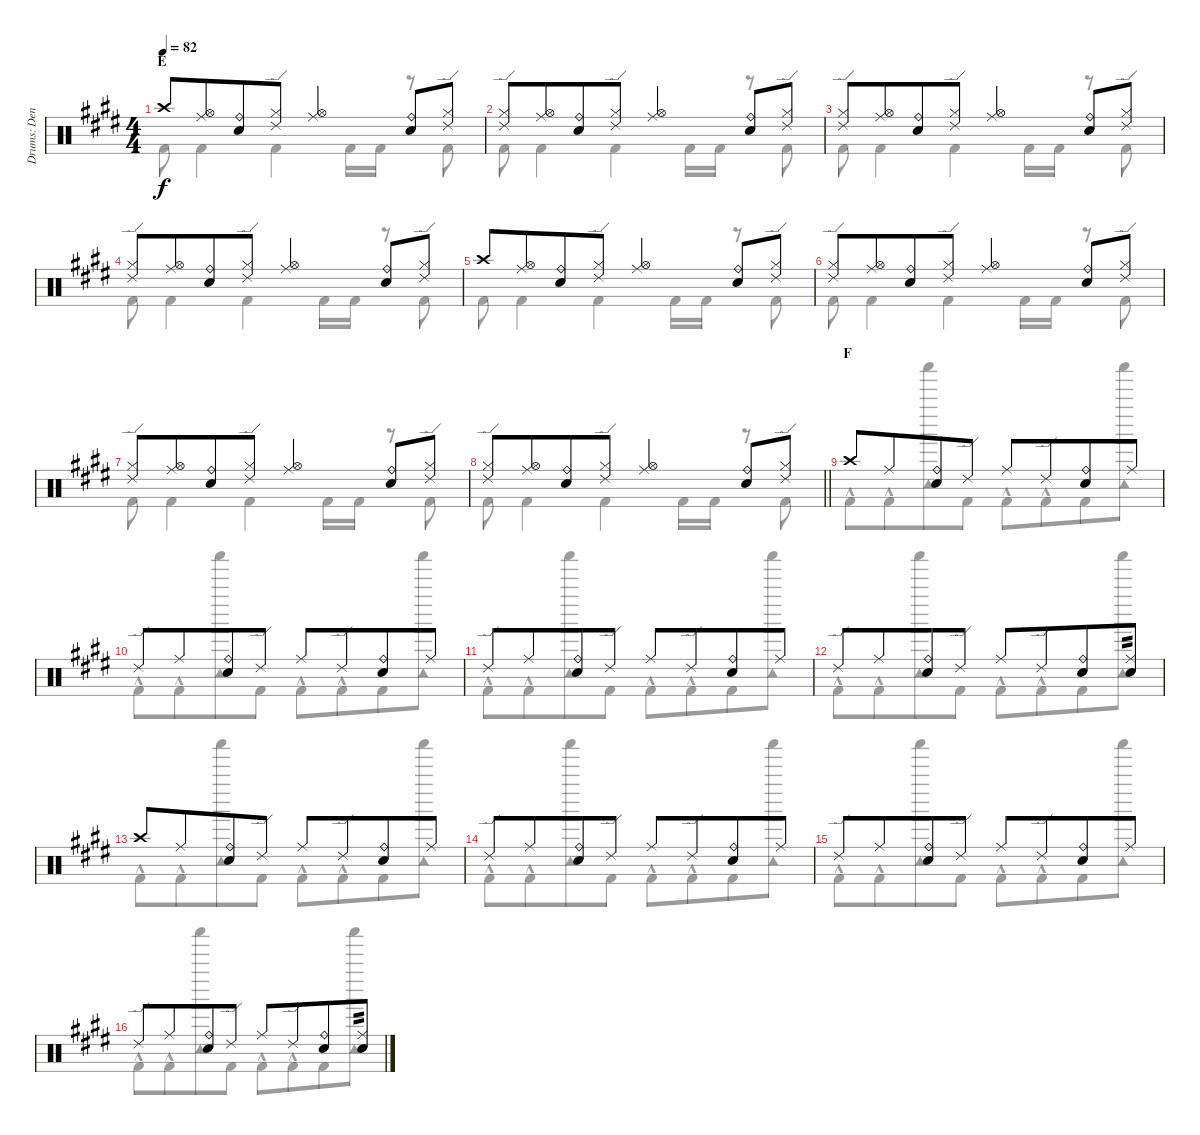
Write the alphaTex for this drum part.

\track ("Drums: Denny" "Drums: Den") {instrument percussion}
\staff {score}
\articulation defaults
\voice
\ts (4 4)
\section ("" "E")
\tempo 82
\clef neutral
\ks e "Crash high (hit)".8{dy f}
("Ride (middle)" "Hi-Hat (open)").8{beam merge} ("Ride (bell)" "Snare (hit) 2").8 ("Ride (edge) 2" "Hi-Hat (closed)").8 ("Ride (middle)" "Hi-Hat (open)").4 ("Ride (bell)" "Snare (hit) 2").8 ("Ride (edge) 2" "Hi-Hat (closed)").8 |
("Ride (edge) 2" "Hi-Hat (closed)").8 ("Ride (middle)" "Hi-Hat (open)").8{beam merge} ("Ride (bell)" "Snare (hit) 2").8 ("Ride (edge) 2" "Hi-Hat (closed)").8 ("Ride (middle)" "Hi-Hat (open)").4 ("Ride (bell)" "Snare (hit) 2").8 ("Ride (edge) 2" "Hi-Hat (closed)").8 |
("Ride (edge) 2" "Hi-Hat (closed)").8 ("Ride (middle)" "Hi-Hat (open)").8{beam merge} ("Ride (bell)" "Snare (hit) 2").8 ("Ride (edge) 2" "Hi-Hat (closed)").8 ("Ride (middle)" "Hi-Hat (open)").4 ("Ride (bell)" "Snare (hit) 2").8 ("Ride (edge) 2" "Hi-Hat (closed)").8 |
("Ride (edge) 2" "Hi-Hat (closed)").8 ("Ride (middle)" "Hi-Hat (open)").8{beam merge} ("Ride (bell)" "Snare (hit) 2").8 ("Ride (edge) 2" "Hi-Hat (closed)").8 ("Ride (middle)" "Hi-Hat (open)").4 ("Ride (bell)" "Snare (hit) 2").8 ("Ride (edge) 2" "Hi-Hat (closed)").8 |
"Crash high (hit)".8 ("Ride (middle)" "Hi-Hat (open)").8{beam merge} ("Ride (bell)" "Snare (hit) 2").8 ("Ride (edge) 2" "Hi-Hat (closed)").8 ("Ride (middle)" "Hi-Hat (open)").4 ("Ride (bell)" "Snare (hit) 2").8 ("Ride (edge) 2" "Hi-Hat (closed)").8 |
("Ride (edge) 2" "Hi-Hat (closed)").8 ("Ride (middle)" "Hi-Hat (open)").8{beam merge} ("Ride (bell)" "Snare (hit) 2").8 ("Ride (edge) 2" "Hi-Hat (closed)").8 ("Ride (middle)" "Hi-Hat (open)").4 ("Ride (bell)" "Snare (hit) 2").8 ("Ride (edge) 2" "Hi-Hat (closed)").8 |
("Ride (edge) 2" "Hi-Hat (closed)").8 ("Ride (middle)" "Hi-Hat (open)").8{beam merge} ("Ride (bell)" "Snare (hit) 2").8 ("Ride (edge) 2" "Hi-Hat (closed)").8 ("Ride (middle)" "Hi-Hat (open)").4 ("Ride (bell)" "Snare (hit) 2").8 ("Ride (edge) 2" "Hi-Hat (closed)").8 |
\barLineRight lightlight
("Ride (edge) 2" "Hi-Hat (closed)").8 ("Ride (middle)" "Hi-Hat (open)").8{beam merge} ("Ride (bell)" "Snare (hit) 2").8 ("Ride (edge) 2" "Hi-Hat (closed)").8 ("Ride (middle)" "Hi-Hat (open)").4 ("Ride (bell)" "Snare (hit) 2").8 ("Ride (edge) 2" "Hi-Hat (closed)").8 |
\section ("" "F")
"Crash high (hit)".8 "Ride (middle)".8{beam merge} ("Ride (bell)" "Snare (hit) 2").8 "Ride (edge) 2".8 "Ride (middle)".8 "Ride (edge) 2".8{beam merge} ("Ride (bell)" "Snare (hit) 2").8 "Ride (middle)".8 |
"Ride (edge) 2".8 "Ride (middle)".8{beam merge} ("Ride (bell)" "Snare (hit) 2").8 "Ride (edge) 2".8 "Ride (middle)".8 "Ride (edge) 2".8{beam merge} ("Ride (bell)" "Snare (hit) 2").8 "Ride (middle)".8 |
"Ride (edge) 2".8 "Ride (middle)".8{beam merge} ("Ride (bell)" "Snare (hit) 2").8 "Ride (edge) 2".8 "Ride (middle)".8 "Ride (edge) 2".8{beam merge} ("Ride (bell)" "Snare (hit) 2").8 "Ride (middle)".8 |
"Ride (edge) 2".8 "Ride (middle)".8{beam merge} ("Ride (bell)" "Snare (hit) 2").8 "Ride (edge) 2".8 "Ride (middle)".8 "Ride (edge) 2".8{beam merge} ("Ride (bell)" "Snare (hit) 2").8 ("Ride (middle)" "Electric Snare (hit)").8{tp 2} |
"Crash high (hit)".8 "Ride (middle)".8{beam merge} ("Ride (bell)" "Snare (hit) 2").8 "Ride (edge) 2".8 "Ride (middle)".8 "Ride (edge) 2".8{beam merge} ("Ride (bell)" "Snare (hit) 2").8 "Ride (middle)".8 |
"Ride (edge) 2".8 "Ride (middle)".8{beam merge} ("Ride (bell)" "Snare (hit) 2").8 "Ride (edge) 2".8 "Ride (middle)".8 "Ride (edge) 2".8{beam merge} ("Ride (bell)" "Snare (hit) 2").8 "Ride (middle)".8 |
"Ride (edge) 2".8 "Ride (middle)".8{beam merge} ("Ride (bell)" "Snare (hit) 2").8 "Ride (edge) 2".8 "Ride (middle)".8 "Ride (edge) 2".8{beam merge} ("Ride (bell)" "Snare (hit) 2").8 "Ride (middle)".8 |
"Ride (edge) 2".8 "Ride (middle)".8{beam merge} ("Ride (bell)" "Snare (hit) 2").8 "Ride (edge) 2".8 "Ride (middle)".8 "Ride (edge) 2".8{beam merge} ("Ride (bell)" "Snare (hit) 2").8 ("Ride (middle)" "Electric Snare (hit)").8{tp 2}
\voice
\clef neutral
\ottava regular
\simile none
\ks e "Kick (hit) 2".8{dy f} "Kick (hit) 2".4 "Kick (hit) 2".4 "Kick (hit) 2".16 "Kick (hit) 2".16
r.8 "Kick (hit) 2".8 |
"Kick (hit) 2".8 "Kick (hit) 2".4 "Kick (hit) 2".4 "Kick (hit) 2".16 "Kick (hit) 2".16 r.8 "Kick (hit) 2".8 |
"Kick (hit) 2".8 "Kick (hit) 2".4 "Kick (hit) 2".4 "Kick (hit) 2".16 "Kick (hit) 2".16 r.8 "Kick (hit) 2".8 |
"Kick (hit) 2".8 "Kick (hit) 2".4 "Kick (hit) 2".4 "Kick (hit) 2".16 "Kick (hit) 2".16 r.8 "Kick (hit) 2".8 |
"Kick (hit) 2".8 "Kick (hit) 2".4 "Kick (hit) 2".4 "Kick (hit) 2".16 "Kick (hit) 2".16 r.8 "Kick (hit) 2".8 |
"Kick (hit) 2".8 "Kick (hit) 2".4 "Kick (hit) 2".4 "Kick (hit) 2".16 "Kick (hit) 2".16 r.8 "Kick (hit) 2".8 |
"Kick (hit) 2".8 "Kick (hit) 2".4 "Kick (hit) 2".4 "Kick (hit) 2".16 "Kick (hit) 2".16 r.8 "Kick (hit) 2".8 |
\barLineRight lightlight "Kick (hit) 2".8 "Kick (hit) 2".4 "Kick (hit) 2".4 "Kick (hit) 2".16 "Kick (hit) 2".16
r.8 "Kick (hit) 2".8 |
"Kick (hit) 2"{hac}.8 "Kick (hit) 2"{hac}.8{beam merge} ("Shaker (hit)" "Tambourine (hit)").8 "Kick (hit) 2".8 "Kick (hit) 2"{hac}.8 "Kick (hit) 2"{hac}.8{beam merge} "Kick (hit) 2".8 ("Shaker (hit)" "Tambourine (hit)").8 |
"Kick (hit) 2"{hac}.8 "Kick (hit) 2"{hac}.8{beam merge} ("Shaker (hit)" "Tambourine (hit)").8 "Kick (hit) 2".8 "Kick (hit) 2"{hac}.8 "Kick (hit) 2"{hac}.8{beam merge} "Kick (hit) 2".8 ("Shaker (hit)" "Tambourine (hit)").8 |
"Kick (hit) 2"{hac}.8 "Kick (hit) 2"{hac}.8{beam merge} ("Shaker (hit)" "Tambourine (hit)").8 "Kick (hit) 2".8 "Kick (hit) 2"{hac}.8 "Kick (hit) 2"{hac}.8{beam merge} "Kick (hit) 2".8 ("Shaker (hit)" "Tambourine (hit)").8 |
"Kick (hit) 2"{hac}.8 "Kick (hit) 2"{hac}.8{beam merge} ("Shaker (hit)" "Tambourine (hit)").8 "Kick (hit) 2".8 "Kick (hit) 2"{hac}.8 "Kick (hit) 2"{hac}.8{beam merge} "Kick (hit) 2".8 ("Shaker (hit)" "Tambourine (hit)").8 |
"Kick (hit) 2"{hac}.8 "Kick (hit) 2"{hac}.8{beam merge} ("Shaker (hit)" "Tambourine (hit)").8 "Kick (hit) 2".8 "Kick (hit) 2"{hac}.8 "Kick (hit) 2"{hac}.8{beam merge} "Kick (hit) 2".8 ("Shaker (hit)" "Tambourine (hit)").8 |
"Kick (hit) 2"{hac}.8 "Kick (hit) 2"{hac}.8{beam merge} ("Shaker (hit)" "Tambourine (hit)").8 "Kick (hit) 2".8 "Kick (hit) 2"{hac}.8 "Kick (hit) 2"{hac}.8{beam merge} "Kick (hit) 2".8 ("Shaker (hit)" "Tambourine (hit)").8 |
"Kick (hit) 2"{hac}.8 "Kick (hit) 2"{hac}.8{beam merge} ("Shaker (hit)" "Tambourine (hit)").8 "Kick (hit) 2".8 "Kick (hit) 2"{hac}.8 "Kick (hit) 2"{hac}.8{beam merge} "Kick (hit) 2".8 ("Shaker (hit)" "Tambourine (hit)").8 |
"Kick (hit) 2"{hac}.8 "Kick (hit) 2"{hac}.8{beam merge} ("Shaker (hit)" "Tambourine (hit)").8 "Kick (hit) 2".8 "Kick (hit) 2"{hac}.8 "Kick (hit) 2"{hac}.8{beam merge} "Kick (hit) 2".8 ("Shaker (hit)" "Tambourine (hit)").8
